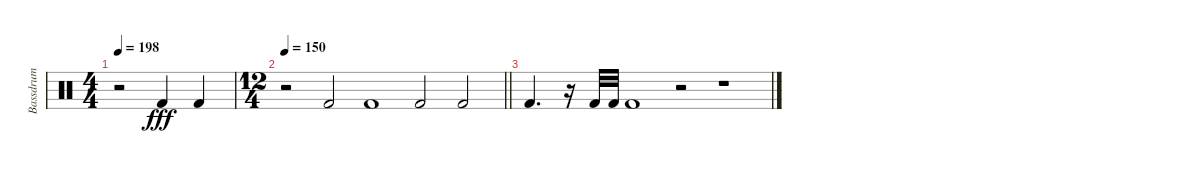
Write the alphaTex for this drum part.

\track ("Bassdrum" "Bassdrum") {instrument percussion}
\staff {score}
\articulation defaults
\ts (4 4)
\tempo 198
\clef neutral
\ks c
r.2{dy fff} "Kick (hit) 2".4 "Kick (hit) 2".4 |
\ts (12 4)
\tempo 150
\barLineRight lightlight
r.2 "Kick (hit) 2".2 "Kick (hit) 2".1 "Kick (hit) 2".2 "Kick (hit) 2".2 |
\section ("" "")
"Kick (hit) 2".4{d} r.16 "Kick (hit) 2".32 "Kick (hit) 2".32 "Kick (hit) 2".1 r.2 r.1
